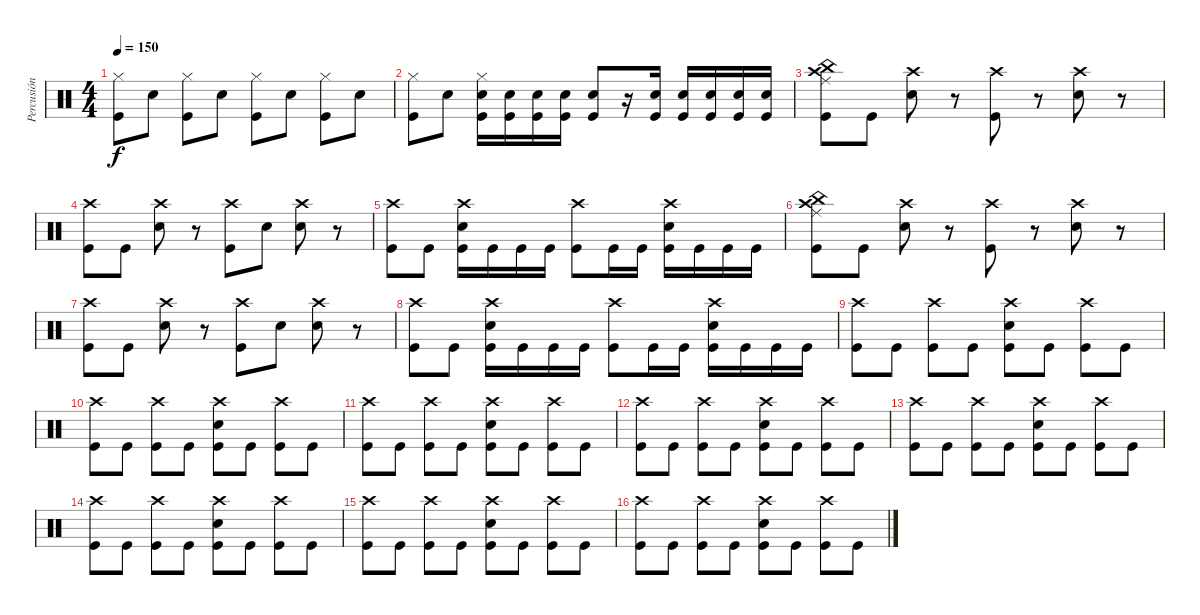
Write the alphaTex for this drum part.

\track ("Percusión  Gabriela" "Percusión ") {instrument percussion}
\staff {score}
\articulation defaults
\ts (4 4)
\tempo 150
\clef neutral
\ks c
("Hi-Hat (closed)" "Kick (hit)").8{dy f} "Snare (hit) 2".8 ("Hi-Hat (closed)" "Kick (hit)").8 "Snare (hit) 2".8 ("Hi-Hat (closed)" "Kick (hit)").8 "Snare (hit) 2".8 ("Hi-Hat (closed)" "Kick (hit)").8 "Snare (hit) 2".8 |
("Hi-Hat (closed)" "Kick (hit)").8 "Snare (hit) 2".8 ("Snare (hit) 2" "Hi-Hat (closed)" "Kick (hit)").16 ("Snare (hit) 2" "Kick (hit)").16 ("Snare (hit) 2" "Kick (hit)").16 ("Snare (hit) 2" "Kick (hit)").16 ("Snare (hit) 2" "Kick (hit)").8 r.16 ("Snare (hit) 2" "Kick (hit)").16 ("Snare (hit) 2" "Kick (hit)").16 ("Snare (hit) 2" "Kick (hit)").16 ("Snare (hit) 2" "Kick (hit)").16 ("Snare (hit) 2" "Kick (hit)").16 |
("Crash high (hit)" "Ride (middle)" "China (hit)" "Kick (hit)").8 "Kick (hit)".8 ("Crash high (hit)" "Snare (hit) 2").8 r.8 ("Crash high (hit)" "Kick (hit)").8 r.8 ("Snare (hit) 2" "Crash high (hit)").8 r.8 |
("Crash high (hit)" "Kick (hit)").8 "Kick (hit)".8 ("Crash high (hit)" "Snare (hit) 2").8 r.8 ("Crash high (hit)" "Kick (hit)").8 "Snare (hit) 2".8 ("Snare (hit) 2" "Crash high (hit)").8 r.8 |
("Crash high (hit)" "Kick (hit)").8 "Kick (hit)".8 ("Crash high (hit)" "Snare (hit) 2" "Kick (hit)").16 "Kick (hit)".16 "Kick (hit)".16 "Kick (hit)".16 ("Crash high (hit)" "Kick (hit)").8 "Kick (hit)".16 "Kick (hit)".16 ("Snare (hit) 2" "Crash high (hit)" "Kick (hit)").16 "Kick (hit)".16 "Kick (hit)".16 "Kick (hit)".16 |
("Crash high (hit)" "Ride (middle)" "China (hit)" "Kick (hit)").8 "Kick (hit)".8 ("Crash high (hit)" "Snare (hit) 2").8 r.8 ("Crash high (hit)" "Kick (hit)").8 r.8 ("Snare (hit) 2" "Crash high (hit)").8 r.8 |
("Crash high (hit)" "Kick (hit)").8 "Kick (hit)".8 ("Crash high (hit)" "Snare (hit) 2").8 r.8 ("Crash high (hit)" "Kick (hit)").8 "Snare (hit) 2".8 ("Snare (hit) 2" "Crash high (hit)").8 r.8 |
("Crash high (hit)" "Kick (hit)").8 "Kick (hit)".8 ("Crash high (hit)" "Snare (hit) 2" "Kick (hit)").16 "Kick (hit)".16 "Kick (hit)".16 "Kick (hit)".16 ("Crash high (hit)" "Kick (hit)").8 "Kick (hit)".16 "Kick (hit)".16 ("Snare (hit) 2" "Crash high (hit)" "Kick (hit)").16 "Kick (hit)".16 "Kick (hit)".16 "Kick (hit)".16 |
("Crash high (hit)" "Kick (hit)").8 "Kick (hit)".8 ("Crash high (hit)" "Kick (hit)").8 "Kick (hit)".8 ("Crash high (hit)" "Kick (hit)" "Snare (hit) 2").8 "Kick (hit)".8 ("Crash high (hit)" "Kick (hit)").8 "Kick (hit)".8 |
("Crash high (hit)" "Kick (hit)").8 "Kick (hit)".8 ("Crash high (hit)" "Kick (hit)").8 "Kick (hit)".8 ("Crash high (hit)" "Kick (hit)" "Snare (hit) 2").8 "Kick (hit)".8 ("Crash high (hit)" "Kick (hit)").8 "Kick (hit)".8 |
("Crash high (hit)" "Kick (hit)").8 "Kick (hit)".8 ("Crash high (hit)" "Kick (hit)").8 "Kick (hit)".8 ("Crash high (hit)" "Kick (hit)" "Snare (hit) 2").8 "Kick (hit)".8 ("Crash high (hit)" "Kick (hit)").8 "Kick (hit)".8 |
("Crash high (hit)" "Kick (hit)").8 "Kick (hit)".8 ("Crash high (hit)" "Kick (hit)").8 "Kick (hit)".8 ("Crash high (hit)" "Kick (hit)" "Snare (hit) 2").8 "Kick (hit)".8 ("Crash high (hit)" "Kick (hit)").8 "Kick (hit)".8 |
("Crash high (hit)" "Kick (hit)").8 "Kick (hit)".8 ("Crash high (hit)" "Kick (hit)").8 "Kick (hit)".8 ("Crash high (hit)" "Kick (hit)" "Snare (hit) 2").8 "Kick (hit)".8 ("Crash high (hit)" "Kick (hit)").8 "Kick (hit)".8 |
("Crash high (hit)" "Kick (hit)").8 "Kick (hit)".8 ("Crash high (hit)" "Kick (hit)").8 "Kick (hit)".8 ("Crash high (hit)" "Kick (hit)" "Snare (hit) 2").8 "Kick (hit)".8 ("Crash high (hit)" "Kick (hit)").8 "Kick (hit)".8 |
("Crash high (hit)" "Kick (hit)").8 "Kick (hit)".8 ("Crash high (hit)" "Kick (hit)").8 "Kick (hit)".8 ("Crash high (hit)" "Kick (hit)" "Snare (hit) 2").8 "Kick (hit)".8 ("Crash high (hit)" "Kick (hit)").8 "Kick (hit)".8 |
("Crash high (hit)" "Kick (hit)").8 "Kick (hit)".8 ("Crash high (hit)" "Kick (hit)").8 "Kick (hit)".8 ("Crash high (hit)" "Kick (hit)" "Snare (hit) 2").8 "Kick (hit)".8 ("Crash high (hit)" "Kick (hit)").8 "Kick (hit)".8
